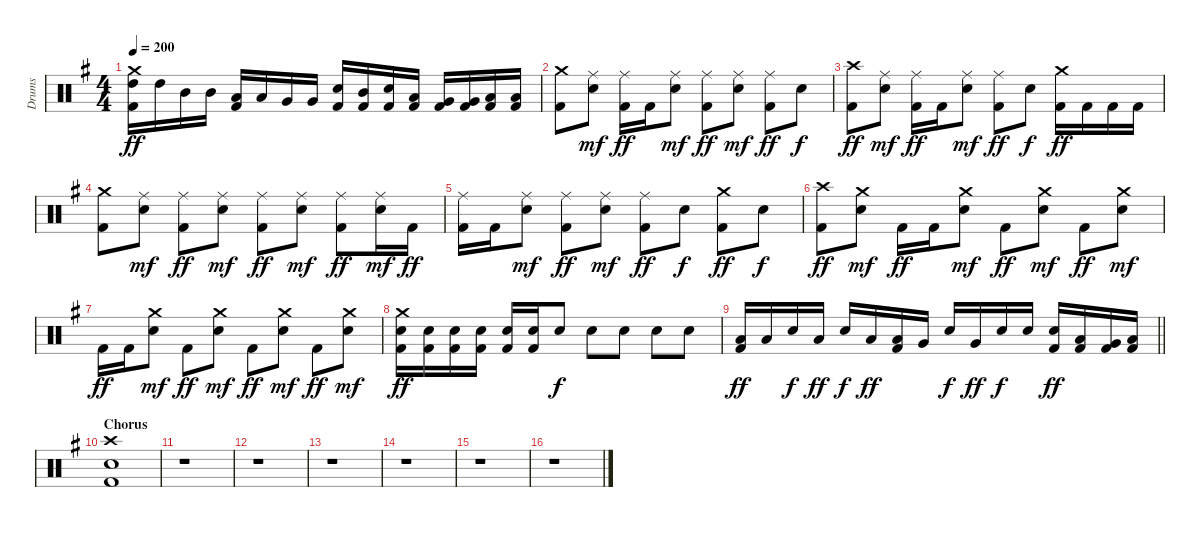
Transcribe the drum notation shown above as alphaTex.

\track ("Drums" "Drums") {instrument percussion}
\staff {score}
\articulation defaults
\ts (4 4)
\tempo 200
\clef neutral
\ks g
("Crash medium (hit)" "High Tom (hit)" "Kick (hit) 2").16{dy ff} "High Tom (hit)".16 "Mid Tom (hit)".16 "Mid Tom (hit)".16 ("Low Tom (hit)" "Kick (hit) 2").16 "Low Tom (hit)".16 "Very Low Tom (hit)".16 "Very Low Tom (hit)".16 ("Snare (hit) 2" "Kick (hit) 2").16 ("Mid Tom (hit)" "Kick (hit) 2").16 ("Snare (hit) 2" "Kick (hit) 2").16 ("Low Tom (hit)" "Kick (hit) 2").16 ("Very Low Tom (hit)" "Kick (hit) 2").16 ("Very Low Tom (hit)" "Kick (hit) 2").16 ("Low Floor Tom (hit)" "Kick (hit) 2").16 ("Low Floor Tom (hit)" "Kick (hit) 2").16 |
("Crash medium (hit)" "Kick (hit) 2").8 ("Ride (middle)" "Snare (hit) 2").8{dy mf} ("Ride (middle)" "Kick (hit) 2").16{dy ff} "Kick (hit) 2".16 ("Ride (middle)" "Snare (hit) 2").8{dy mf} ("Ride (middle)" "Kick (hit) 2").8{dy ff} ("Ride (middle)" "Snare (hit) 2").8{dy mf} ("Ride (middle)" "Kick (hit) 2").8{dy ff} "Snare (hit) 2".8{dy f} |
("Crash high (hit)" "Kick (hit) 2").8{dy ff} ("Ride (middle)" "Snare (hit) 2").8{dy mf} ("Ride (middle)" "Kick (hit) 2").16{dy ff} "Kick (hit) 2".16 ("Ride (middle)" "Snare (hit) 2").8{dy mf} ("Ride (middle)" "Kick (hit) 2").8{dy ff} "Snare (hit) 2".8{dy f} ("Crash medium (hit)" "Kick (hit) 2").16{dy ff} "Kick (hit) 2".16 "Kick (hit) 2".16 "Kick (hit) 2".16 |
("Crash medium (hit)" "Kick (hit) 2").8 ("Ride (middle)" "Snare (hit) 2").8{dy mf} ("Ride (middle)" "Kick (hit) 2").8{dy ff} ("Ride (middle)" "Snare (hit) 2").8{dy mf} ("Ride (middle)" "Kick (hit) 2").8{dy ff} ("Ride (middle)" "Snare (hit) 2").8{dy mf} ("Ride (middle)" "Kick (hit) 2").8{dy ff} ("Ride (middle)" "Snare (hit) 2").16{dy mf} "Kick (hit) 2".16{dy ff} |
("Ride (middle)" "Kick (hit) 2").16 "Kick (hit) 2".16 ("Ride (middle)" "Snare (hit) 2").8{dy mf} ("Ride (middle)" "Kick (hit) 2").8{dy ff} ("Ride (middle)" "Snare (hit) 2").8{dy mf} ("Ride (middle)" "Kick (hit) 2").8{dy ff} "Snare (hit) 2".8{dy f} ("Crash medium (hit)" "Kick (hit) 2").8{dy ff} "Snare (hit) 2".8{dy f} |
("Crash high (hit)" "Kick (hit) 2").8{dy ff} ("Crash medium (hit)" "Snare (hit) 2").8{dy mf} "Kick (hit) 2".16{dy ff} "Kick (hit) 2".16 ("Crash medium (hit)" "Snare (hit) 2").8{dy mf} "Kick (hit) 2".8{dy ff} ("Crash medium (hit)" "Snare (hit) 2").8{dy mf} "Kick (hit) 2".8{dy ff} ("Crash medium (hit)" "Snare (hit) 2").8{dy mf} |
"Kick (hit) 2".16{dy ff} "Kick (hit) 2".16 ("Crash medium (hit)" "Snare (hit) 2").8{dy mf} "Kick (hit) 2".8{dy ff} ("Crash medium (hit)" "Snare (hit) 2").8{dy mf} "Kick (hit) 2".8{dy ff} ("Crash medium (hit)" "Snare (hit) 2").8{dy mf} "Kick (hit) 2".8{dy ff} ("Crash medium (hit)" "Snare (hit) 2").8{dy mf} |
("Crash medium (hit)" "Snare (hit) 2" "Kick (hit) 2").16{dy ff} ("Snare (hit) 2" "Kick (hit) 2").16 ("Snare (hit) 2" "Kick (hit) 2").16 ("Snare (hit) 2" "Kick (hit) 2").16 ("Snare (hit) 2" "Kick (hit) 2").16 ("Snare (hit) 2" "Kick (hit) 2").16 "Snare (hit) 2".8{dy f} "Snare (hit) 2".8 "Snare (hit) 2".8 "Snare (hit) 2".8 "Snare (hit) 2".8 |
\barLineRight lightlight
("Low Tom (hit)" "Kick (hit) 2").16{dy ff} "Low Tom (hit)".16 "Snare (hit) 2".16{dy f} "Low Tom (hit)".16{dy ff} "Snare (hit) 2".16{dy f} "Low Tom (hit)".16{dy ff} ("Low Tom (hit)" "Kick (hit) 2").16 "Very Low Tom (hit)".16 "Snare (hit) 2".16{dy f} "Very Low Tom (hit)".16{dy ff} "Snare (hit) 2".16{dy f} "Snare (hit) 2".16 ("Snare (hit) 2" "Kick (hit) 2").16{dy ff} ("Low Tom (hit)" "Kick (hit) 2").16 ("Very Low Tom (hit)" "Kick (hit) 2").16 ("Low Floor Tom (hit)" "Kick (hit) 2").16 |
\section ("" "Chorus")
("Crash high (hit)" "Snare (hit) 2" "Kick (hit) 2").1 |
r.1 |
r.1 |
r.1 |
r.1 |
r.1 |
r.1
